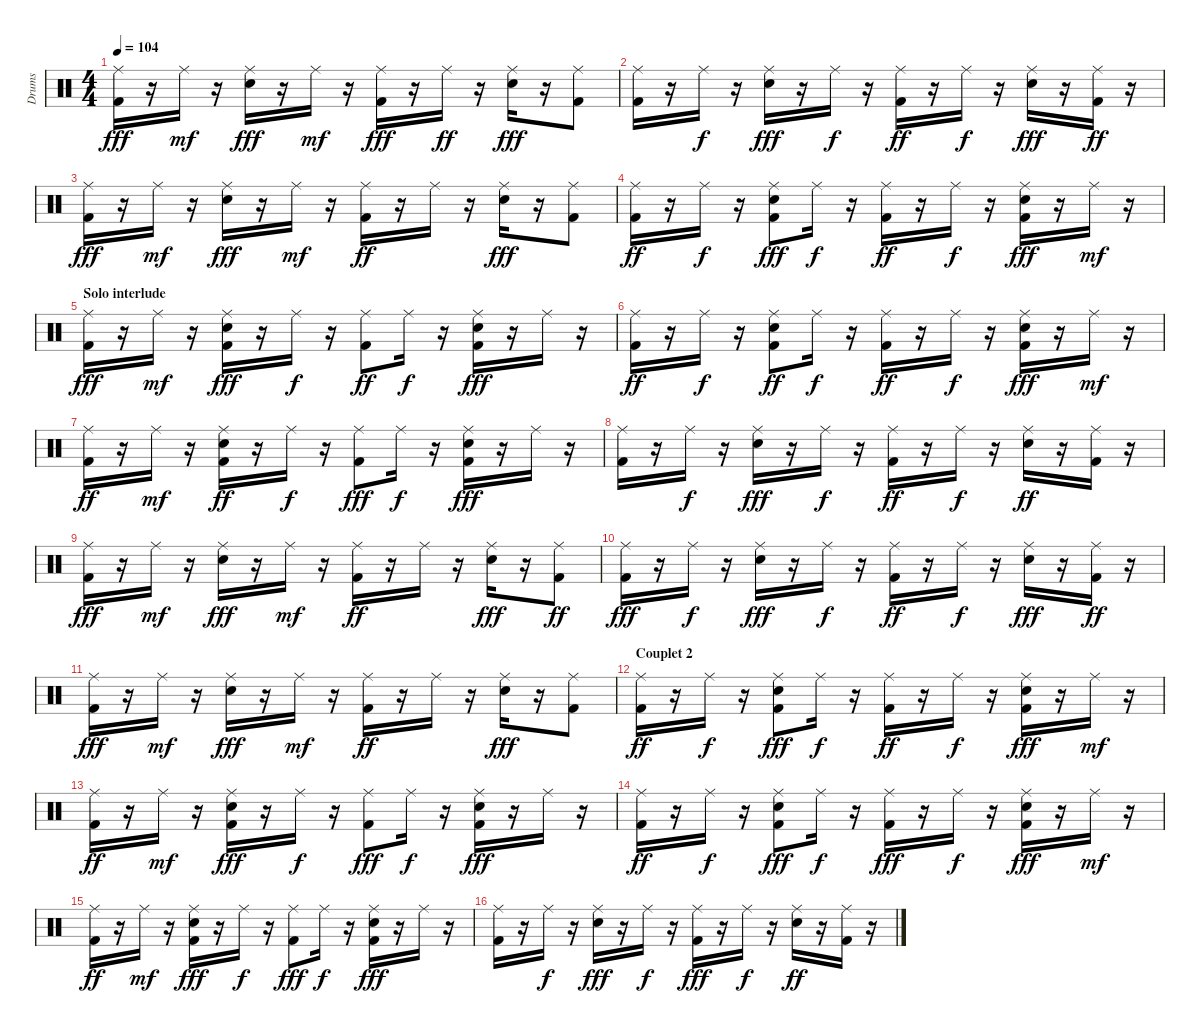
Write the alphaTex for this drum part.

\track ("Drums" "Drums") {instrument percussion}
\staff {score}
\articulation defaults
\ts (4 4)
\tempo 104
\clef neutral
\ks c
("Kick (hit) 2" "Ride (middle)").16{dy fff} r.16 "Ride (middle)".16{dy mf} r.16 ("Ride (middle)" "Snare (hit) 2").16{dy fff} r.16 "Ride (middle)".16{dy mf} r.16 ("Ride (middle)" "Kick (hit) 2").16{dy fff} r.16 "Ride (middle)".16{dy ff} r.16 ("Ride (middle)" "Snare (hit) 2").16{dy fff} r.16 ("Kick (hit) 2" "Ride (middle)").8 |
("Ride (middle)" "Kick (hit) 2").16 r.16 "Ride (middle)".16{dy f} r.16 ("Snare (hit) 2" "Ride (middle)").16{dy fff} r.16 "Ride (middle)".16{dy f} r.16 ("Kick (hit) 2" "Ride (middle)").16{dy ff} r.16 "Ride (middle)".16{dy f} r.16 ("Ride (middle)" "Snare (hit) 2").16{dy fff} r.16 ("Ride (middle)" "Kick (hit) 2").16{dy ff} r.16 |
("Ride (middle)" "Kick (hit) 2").16{dy fff} r.16 "Ride (middle)".16{dy mf} r.16 ("Snare (hit) 2" "Ride (middle)").16{dy fff} r.16 "Ride (middle)".16{dy mf} r.16 ("Kick (hit) 2" "Ride (middle)").16{dy ff} r.16 "Ride (middle)".16 r.16 ("Snare (hit) 2" "Ride (middle)").16{dy fff} r.16 ("Kick (hit) 2" "Ride (middle)").8 |
("Kick (hit) 2" "Ride (middle)").16{dy ff} r.16 "Ride (middle)".16{dy f} r.16 ("Ride (middle)" "Kick (hit) 2" "Snare (hit) 2").8{dy fff} "Ride (middle)".16{dy f} r.16 ("Kick (hit) 2" "Ride (middle)").16{dy ff} r.16 "Ride (middle)".16{dy f} r.16 ("Kick (hit) 2" "Ride (middle)" "Snare (hit) 2").16{dy fff} r.16 "Ride (middle)".16{dy mf} r.16 |
\section ("" "Solo interlude")
("Ride (middle)" "Kick (hit) 2").16{dy fff} r.16 "Ride (middle)".16{dy mf} r.16 ("Ride (middle)" "Kick (hit) 2" "Snare (hit) 2").16{dy fff} r.16 "Ride (middle)".16{dy f} r.16 ("Kick (hit) 2" "Ride (middle)").8{dy ff} "Ride (middle)".16{dy f} r.16 ("Ride (middle)" "Kick (hit) 2" "Snare (hit) 2").16{dy fff} r.16 "Ride (middle)".16 r.16 |
("Kick (hit) 2" "Ride (middle)").16{dy ff} r.16 "Ride (middle)".16{dy f} r.16 ("Kick (hit) 2" "Snare (hit) 2" "Ride (middle)").8{dy ff} "Ride (middle)".16{dy f} r.16 ("Kick (hit) 2" "Ride (middle)").16{dy ff} r.16 "Ride (middle)".16{dy f} r.16 ("Ride (middle)" "Kick (hit) 2" "Snare (hit) 2").16{dy fff} r.16 "Ride (middle)".16{dy mf} r.16 |
("Kick (hit) 2" "Ride (middle)").16{dy ff} r.16 "Ride (middle)".16{dy mf} r.16 ("Kick (hit) 2" "Snare (hit) 2" "Ride (middle)").16{dy ff} r.16 "Ride (middle)".16{dy f} r.16 ("Ride (middle)" "Kick (hit) 2").8{dy fff} "Ride (middle)".16{dy f} r.16 ("Ride (middle)" "Kick (hit) 2" "Snare (hit) 2").16{dy fff} r.16 "Ride (middle)".16 r.16 |
("Ride (middle)" "Kick (hit) 2").16 r.16 "Ride (middle)".16{dy f} r.16 ("Ride (middle)" "Snare (hit) 2").16{dy fff} r.16 "Ride (middle)".16{dy f} r.16 ("Kick (hit) 2" "Ride (middle)").16{dy ff} r.16 "Ride (middle)".16{dy f} r.16 ("Snare (hit) 2" "Ride (middle)").16{dy ff} r.16 ("Ride (middle)" "Kick (hit) 2").16 r.16 |
("Kick (hit) 2" "Ride (middle)").16{dy fff} r.16 "Ride (middle)".16{dy mf} r.16 ("Ride (middle)" "Snare (hit) 2").16{dy fff} r.16 "Ride (middle)".16{dy mf} r.16 ("Kick (hit) 2" "Ride (middle)").16{dy ff} r.16 "Ride (middle)".16 r.16 ("Snare (hit) 2" "Ride (middle)").16{dy fff} r.16 ("Ride (middle)" "Kick (hit) 2").8{dy ff} |
("Kick (hit) 2" "Ride (middle)").16{dy fff} r.16 "Ride (middle)".16{dy f} r.16 ("Snare (hit) 2" "Ride (middle)").16{dy fff} r.16 "Ride (middle)".16{dy f} r.16 ("Kick (hit) 2" "Ride (middle)").16{dy ff} r.16 "Ride (middle)".16{dy f} r.16 ("Ride (middle)" "Snare (hit) 2").16{dy fff} r.16 ("Kick (hit) 2" "Ride (middle)").16{dy ff} r.16 |
("Kick (hit) 2" "Ride (middle)").16{dy fff} r.16 "Ride (middle)".16{dy mf} r.16 ("Snare (hit) 2" "Ride (middle)").16{dy fff} r.16 "Ride (middle)".16{dy mf} r.16 ("Kick (hit) 2" "Ride (middle)").16{dy ff} r.16 "Ride (middle)".16 r.16 ("Snare (hit) 2" "Ride (middle)").16{dy fff} r.16 ("Kick (hit) 2" "Ride (middle)").8 |
\section ("" "Couplet 2")
("Kick (hit) 2" "Ride (middle)").16{dy ff} r.16 "Ride (middle)".16{dy f} r.16 ("Ride (middle)" "Kick (hit) 2" "Snare (hit) 2").8{dy fff} "Ride (middle)".16{dy f} r.16 ("Kick (hit) 2" "Ride (middle)").16{dy ff} r.16 "Ride (middle)".16{dy f} r.16 ("Snare (hit) 2" "Kick (hit) 2" "Ride (middle)").16{dy fff} r.16 "Ride (middle)".16{dy mf} r.16 |
("Kick (hit) 2" "Ride (middle)").16{dy ff} r.16 "Ride (middle)".16{dy mf} r.16 ("Ride (middle)" "Kick (hit) 2" "Snare (hit) 2").16{dy fff} r.16 "Ride (middle)".16{dy f} r.16 ("Ride (middle)" "Kick (hit) 2").8{dy fff} "Ride (middle)".16{dy f} r.16 ("Snare (hit) 2" "Kick (hit) 2" "Ride (middle)").16{dy fff} r.16 "Ride (middle)".16 r.16 |
("Ride (middle)" "Kick (hit) 2").16{dy ff} r.16 "Ride (middle)".16{dy f} r.16 ("Snare (hit) 2" "Ride (middle)" "Kick (hit) 2").8{dy fff} "Ride (middle)".16{dy f} r.16 ("Ride (middle)" "Kick (hit) 2").16{dy fff} r.16 "Ride (middle)".16{dy f} r.16 ("Snare (hit) 2" "Ride (middle)" "Kick (hit) 2").16{dy fff} r.16 "Ride (middle)".16{dy mf} r.16 |
("Kick (hit) 2" "Ride (middle)").16{dy ff} r.16 "Ride (middle)".16{dy mf} r.16 ("Ride (middle)" "Kick (hit) 2" "Snare (hit) 2").16{dy fff} r.16 "Ride (middle)".16{dy f} r.16 ("Ride (middle)" "Kick (hit) 2").8{dy fff} "Ride (middle)".16{dy f} r.16 ("Kick (hit) 2" "Ride (middle)" "Snare (hit) 2").16{dy fff} r.16 "Ride (middle)".16 r.16 |
("Ride (middle)" "Kick (hit) 2").16 r.16 "Ride (middle)".16{dy f} r.16 ("Snare (hit) 2" "Ride (middle)").16{dy fff} r.16 "Ride (middle)".16{dy f} r.16 ("Ride (middle)" "Kick (hit) 2").16{dy fff} r.16 "Ride (middle)".16{dy f} r.16 ("Snare (hit) 2" "Ride (middle)").16{dy ff} r.16 ("Kick (hit) 2" "Ride (middle)").16 r.16
